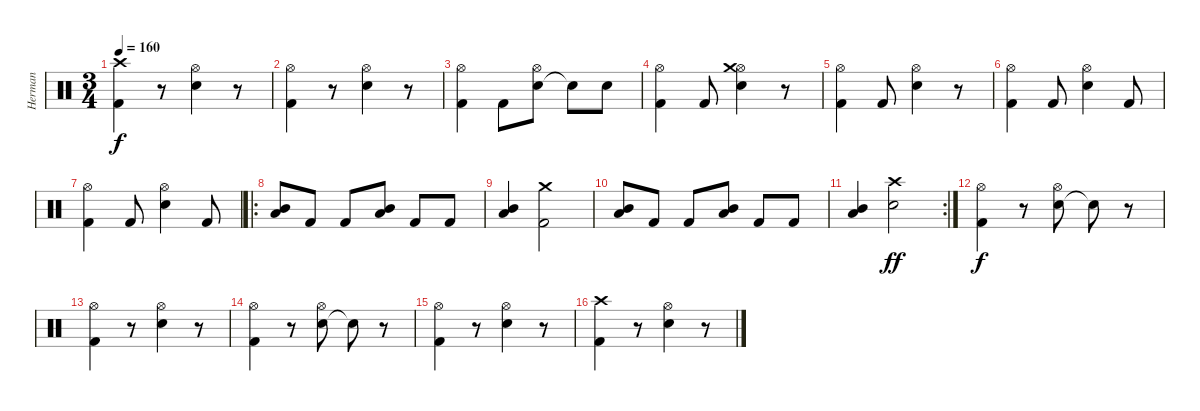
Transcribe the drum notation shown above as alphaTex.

\track ("Herman" "Herman") {instrument percussion}
\staff {score}
\articulation defaults
\ts (3 4)
\tempo 160
\clef neutral
\ks c
("Kick (hit) 2" "Crash high (hit)").4{dy f} r.8 ("Electric Snare (hit)" "Hi-Hat (open)").4 r.8 |
("Kick (hit) 2" "Hi-Hat (open)").4 r.8 ("Electric Snare (hit)" "Hi-Hat (open)").4 r.8 |
("Kick (hit) 2" "Hi-Hat (open)").4 "Kick (hit) 2".8 ("Electric Snare (hit)" "Hi-Hat (open)").8 "Snare (hit)"{t}.8 "Electric Snare (hit)".8 |
("Kick (hit) 2" "Hi-Hat (open)").4 "Kick (hit) 2".8 ("Electric Snare (hit)" "Hi-Hat (open)" "Crash medium (hit)").4 r.8 |
("Kick (hit) 2" "Hi-Hat (open)").4 "Kick (hit) 2".8 ("Electric Snare (hit)" "Hi-Hat (open)").4 r.8 |
("Kick (hit) 2" "Hi-Hat (open)").4 "Kick (hit) 2".8 ("Electric Snare (hit)" "Hi-Hat (open)").4 "Kick (hit) 2".8 |
("Kick (hit) 2" "Hi-Hat (open)").4 "Kick (hit) 2".8 ("Electric Snare (hit)" "Hi-Hat (open)").4 "Kick (hit) 2".8 |
\ro
("Low Tom (hit)" "Mid Tom (hit)").8 "Kick (hit) 2".8 "Kick (hit) 2".8 ("Low Tom (hit)" "Mid Tom (hit)").8 "Kick (hit) 2".8 "Kick (hit) 2".8 |
("Low Tom (hit)" "Mid Tom (hit)").4 ("Crash medium (hit)" "Kick (hit) 2").2 |
("Low Tom (hit)" "Mid Tom (hit)").8 "Kick (hit) 2".8 "Kick (hit) 2".8 ("Low Tom (hit)" "Mid Tom (hit)").8 "Kick (hit) 2".8 "Kick (hit) 2".8 |
\rc 2
("Low Tom (hit)" "Mid Tom (hit)").4 ("Crash high (hit)" "Electric Snare (hit)").2{dy ff} |
("Kick (hit) 2" "Hi-Hat (open)").4{dy f} r.8 ("Electric Snare (hit)" "Hi-Hat (open)").8 "Snare (hit)"{t}.8 r.8 |
("Kick (hit) 2" "Hi-Hat (open)").4 r.8 ("Electric Snare (hit)" "Hi-Hat (open)").4 r.8 |
("Kick (hit) 2" "Hi-Hat (open)").4 r.8 ("Electric Snare (hit)" "Hi-Hat (open)").8 "Snare (hit)"{t}.8 r.8 |
("Kick (hit) 2" "Hi-Hat (open)").4 r.8 ("Electric Snare (hit)" "Hi-Hat (open)").4 r.8 |
("Kick (hit) 2" "Crash high (hit)").4 r.8 ("Electric Snare (hit)" "Hi-Hat (open)").4 r.8
